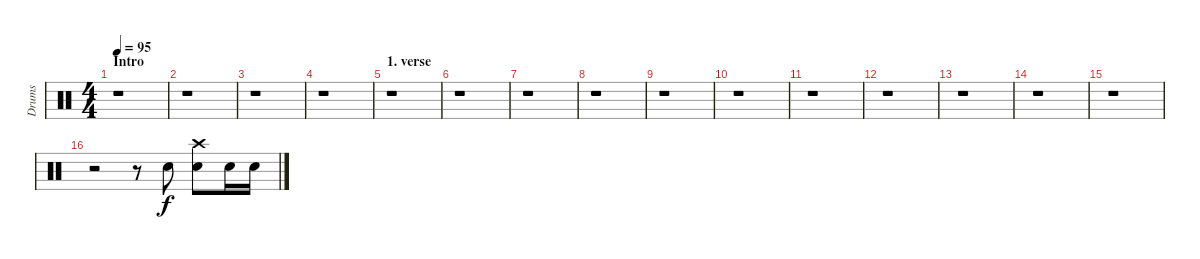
\track ("Drums" "Drums") {instrument percussion}
\staff {score}
\articulation defaults
\ts (4 4)
\section ("" "Intro")
\tempo 95
\clef neutral
\ks c
r.1{dy f} |
r.1 |
r.1 |
r.1 |
\section ("" "1. verse")
r.1 |
r.1 |
r.1 |
r.1 |
r.1 |
r.1 |
r.1 |
r.1 |
r.1 |
r.1 |
r.1 |
r.2 r.8 "Snare (hit) 2".8 ("Snare (hit) 2" "Crash high (hit)").8 "Snare (hit) 2".16 "Snare (hit) 2".16
